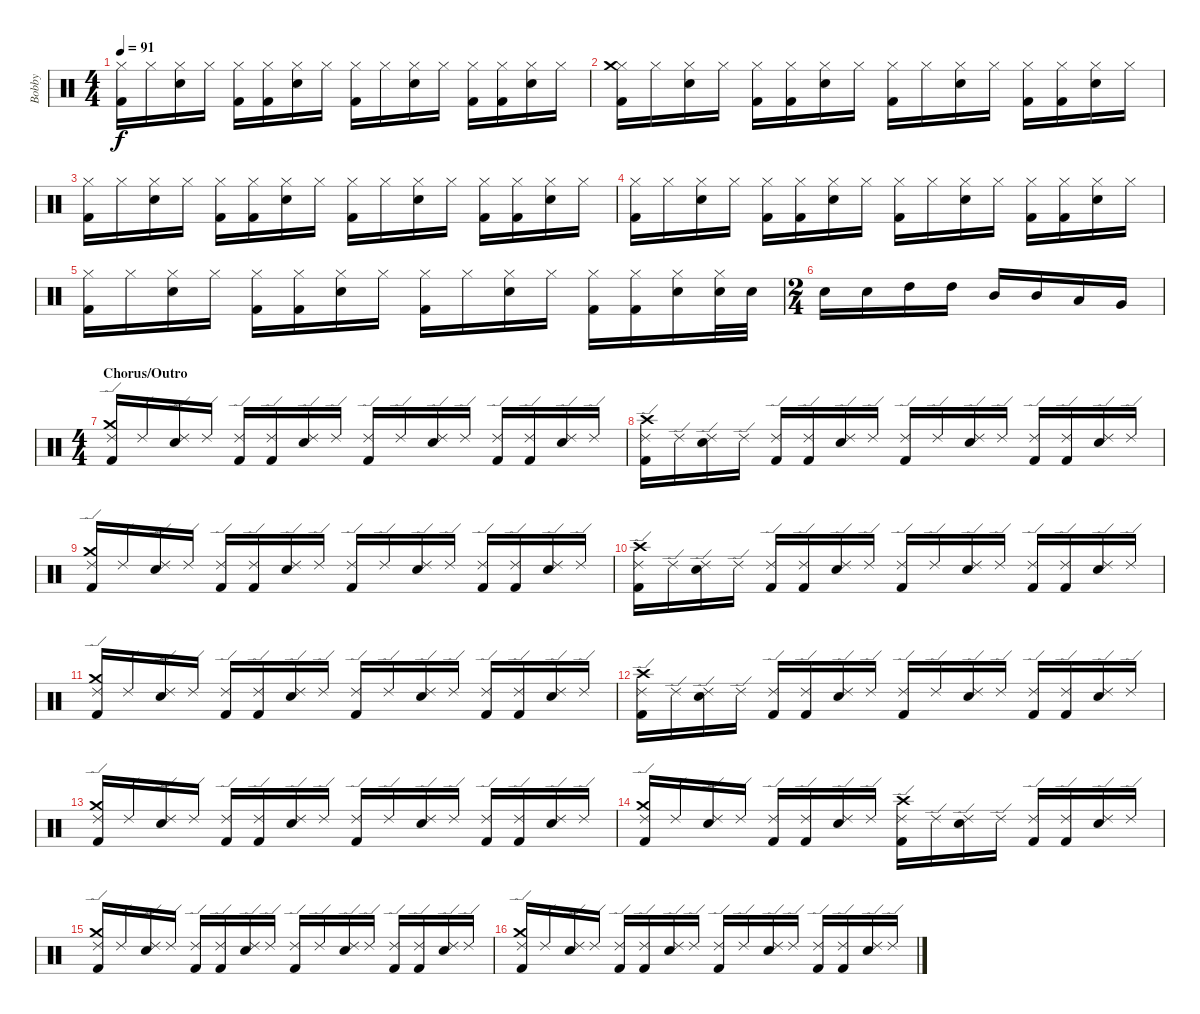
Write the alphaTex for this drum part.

\track ("Bobby" "Bobby") {instrument percussion}
\staff {score}
\articulation defaults
\ts (4 4)
\tempo 91
\clef neutral
\ks c
("Hi-Hat (closed)" "Kick (hit) 2").16{dy f} "Hi-Hat (closed)".16 ("Hi-Hat (closed)" "Snare (hit) 2").16 "Hi-Hat (closed)".16 ("Hi-Hat (closed)" "Kick (hit) 2").16 ("Hi-Hat (closed)" "Kick (hit) 2").16 ("Hi-Hat (closed)" "Snare (hit) 2").16 "Hi-Hat (closed)".16 ("Hi-Hat (closed)" "Kick (hit) 2").16 "Hi-Hat (closed)".16 ("Hi-Hat (closed)" "Snare (hit) 2").16 "Hi-Hat (closed)".16 ("Hi-Hat (closed)" "Kick (hit) 2").16 ("Hi-Hat (closed)" "Kick (hit) 2").16 ("Hi-Hat (closed)" "Snare (hit) 2").16 "Hi-Hat (closed)".16 |
("Hi-Hat (closed)" "Crash medium (hit)" "Kick (hit) 2").16 "Hi-Hat (closed)".16 ("Hi-Hat (closed)" "Snare (hit) 2").16 "Hi-Hat (closed)".16 ("Hi-Hat (closed)" "Kick (hit) 2").16 ("Hi-Hat (closed)" "Kick (hit) 2").16 ("Hi-Hat (closed)" "Snare (hit) 2").16 "Hi-Hat (closed)".16 ("Hi-Hat (closed)" "Kick (hit) 2").16 "Hi-Hat (closed)".16 ("Hi-Hat (closed)" "Snare (hit) 2").16 "Hi-Hat (closed)".16 ("Hi-Hat (closed)" "Kick (hit) 2").16 ("Hi-Hat (closed)" "Kick (hit) 2").16 ("Hi-Hat (closed)" "Snare (hit) 2").16 "Hi-Hat (closed)".16 |
("Hi-Hat (closed)" "Kick (hit) 2").16 "Hi-Hat (closed)".16 ("Hi-Hat (closed)" "Snare (hit) 2").16 "Hi-Hat (closed)".16 ("Hi-Hat (closed)" "Kick (hit) 2").16 ("Hi-Hat (closed)" "Kick (hit) 2").16 ("Hi-Hat (closed)" "Snare (hit) 2").16 "Hi-Hat (closed)".16 ("Hi-Hat (closed)" "Kick (hit) 2").16 "Hi-Hat (closed)".16 ("Hi-Hat (closed)" "Snare (hit) 2").16 "Hi-Hat (closed)".16 ("Hi-Hat (closed)" "Kick (hit) 2").16 ("Hi-Hat (closed)" "Kick (hit) 2").16 ("Hi-Hat (closed)" "Snare (hit) 2").16 "Hi-Hat (closed)".16 |
("Hi-Hat (closed)" "Kick (hit) 2").16 "Hi-Hat (closed)".16 ("Hi-Hat (closed)" "Snare (hit) 2").16 "Hi-Hat (closed)".16 ("Hi-Hat (closed)" "Kick (hit) 2").16 ("Hi-Hat (closed)" "Kick (hit) 2").16 ("Hi-Hat (closed)" "Snare (hit) 2").16 "Hi-Hat (closed)".16 ("Hi-Hat (closed)" "Kick (hit) 2").16 "Hi-Hat (closed)".16 ("Hi-Hat (closed)" "Snare (hit) 2").16 "Hi-Hat (closed)".16 ("Hi-Hat (closed)" "Kick (hit) 2").16 ("Hi-Hat (closed)" "Kick (hit) 2").16 ("Hi-Hat (closed)" "Snare (hit) 2").16 "Hi-Hat (closed)".16 |
("Hi-Hat (closed)" "Kick (hit) 2").16 "Hi-Hat (closed)".16 ("Hi-Hat (closed)" "Snare (hit) 2").16 "Hi-Hat (closed)".16 ("Hi-Hat (closed)" "Kick (hit) 2").16 ("Hi-Hat (closed)" "Kick (hit) 2").16 ("Hi-Hat (closed)" "Snare (hit) 2").16 "Hi-Hat (closed)".16 ("Hi-Hat (closed)" "Kick (hit) 2").16 "Hi-Hat (closed)".16 ("Hi-Hat (closed)" "Snare (hit) 2").16 "Hi-Hat (closed)".16 ("Hi-Hat (closed)" "Kick (hit) 2").16 ("Hi-Hat (closed)" "Kick (hit) 2").16 ("Hi-Hat (closed)" "Snare (hit) 2").16 ("Hi-Hat (closed)" "Snare (hit) 2").32 "Snare (hit) 2".32 |
\ts (2 4)
"Snare (hit) 2".16 "Snare (hit) 2".16 "High Tom (hit)".16 "High Tom (hit)".16 "Mid Tom (hit)".16 "Mid Tom (hit)".16 "Low Tom (hit)".16 "Very Low Tom (hit)".16 |
\ts (4 4)
\section ("" "Chorus/Outro")
("Ride (edge) 2" "Crash medium (hit)" "Kick (hit) 2").16 "Ride (edge) 2".16 ("Ride (edge) 2" "Snare (hit) 2").16 "Ride (edge) 2".16 ("Ride (edge) 2" "Kick (hit) 2").16 ("Ride (edge) 2" "Kick (hit) 2").16 ("Ride (edge) 2" "Snare (hit) 2").16 "Ride (edge) 2".16 ("Ride (edge) 2" "Kick (hit) 2").16 "Ride (edge) 2".16 ("Ride (edge) 2" "Snare (hit) 2").16 "Ride (edge) 2".16 ("Ride (edge) 2" "Kick (hit) 2").16 ("Ride (edge) 2" "Kick (hit) 2").16 ("Ride (edge) 2" "Snare (hit) 2").16 "Ride (edge) 2".16 |
("Ride (edge) 2" "Crash high (hit)" "Kick (hit) 2").16 "Ride (edge) 2".16 ("Ride (edge) 2" "Snare (hit) 2").16 "Ride (edge) 2".16 ("Ride (edge) 2" "Kick (hit) 2").16 ("Ride (edge) 2" "Kick (hit) 2").16 ("Ride (edge) 2" "Snare (hit) 2").16 "Ride (edge) 2".16 ("Ride (edge) 2" "Kick (hit) 2").16 "Ride (edge) 2".16 ("Ride (edge) 2" "Snare (hit) 2").16 "Ride (edge) 2".16 ("Ride (edge) 2" "Kick (hit) 2").16 ("Ride (edge) 2" "Kick (hit) 2").16 ("Ride (edge) 2" "Snare (hit) 2").16 "Ride (edge) 2".16 |
("Ride (edge) 2" "Crash medium (hit)" "Kick (hit) 2").16 "Ride (edge) 2".16 ("Ride (edge) 2" "Snare (hit) 2").16 "Ride (edge) 2".16 ("Ride (edge) 2" "Kick (hit) 2").16 ("Ride (edge) 2" "Kick (hit) 2").16 ("Ride (edge) 2" "Snare (hit) 2").16 "Ride (edge) 2".16 ("Ride (edge) 2" "Kick (hit) 2").16 "Ride (edge) 2".16 ("Ride (edge) 2" "Snare (hit) 2").16 "Ride (edge) 2".16 ("Ride (edge) 2" "Kick (hit) 2").16 ("Ride (edge) 2" "Kick (hit) 2").16 ("Ride (edge) 2" "Snare (hit) 2").16 "Ride (edge) 2".16 |
("Ride (edge) 2" "Crash high (hit)" "Kick (hit) 2").16 "Ride (edge) 2".16 ("Ride (edge) 2" "Snare (hit) 2").16 "Ride (edge) 2".16 ("Ride (edge) 2" "Kick (hit) 2").16 ("Ride (edge) 2" "Kick (hit) 2").16 ("Ride (edge) 2" "Snare (hit) 2").16 "Ride (edge) 2".16 ("Ride (edge) 2" "Kick (hit) 2").16 "Ride (edge) 2".16 ("Ride (edge) 2" "Snare (hit) 2").16 "Ride (edge) 2".16 ("Ride (edge) 2" "Kick (hit) 2").16 ("Ride (edge) 2" "Kick (hit) 2").16 ("Ride (edge) 2" "Snare (hit) 2").16 "Ride (edge) 2".16 |
("Ride (edge) 2" "Crash medium (hit)" "Kick (hit) 2").16 "Ride (edge) 2".16 ("Ride (edge) 2" "Snare (hit) 2").16 "Ride (edge) 2".16 ("Ride (edge) 2" "Kick (hit) 2").16 ("Ride (edge) 2" "Kick (hit) 2").16 ("Ride (edge) 2" "Snare (hit) 2").16 "Ride (edge) 2".16 ("Ride (edge) 2" "Kick (hit) 2").16 "Ride (edge) 2".16 ("Ride (edge) 2" "Snare (hit) 2").16 "Ride (edge) 2".16 ("Ride (edge) 2" "Kick (hit) 2").16 ("Ride (edge) 2" "Kick (hit) 2").16 ("Ride (edge) 2" "Snare (hit) 2").16 "Ride (edge) 2".16 |
("Ride (edge) 2" "Crash high (hit)" "Kick (hit) 2").16 "Ride (edge) 2".16 ("Ride (edge) 2" "Snare (hit) 2").16 "Ride (edge) 2".16 ("Ride (edge) 2" "Kick (hit) 2").16 ("Ride (edge) 2" "Kick (hit) 2").16 ("Ride (edge) 2" "Snare (hit) 2").16 "Ride (edge) 2".16 ("Ride (edge) 2" "Kick (hit) 2").16 "Ride (edge) 2".16 ("Ride (edge) 2" "Snare (hit) 2").16 "Ride (edge) 2".16 ("Ride (edge) 2" "Kick (hit) 2").16 ("Ride (edge) 2" "Kick (hit) 2").16 ("Ride (edge) 2" "Snare (hit) 2").16 "Ride (edge) 2".16 |
("Ride (edge) 2" "Crash medium (hit)" "Kick (hit) 2").16 "Ride (edge) 2".16 ("Ride (edge) 2" "Snare (hit) 2").16 "Ride (edge) 2".16 ("Ride (edge) 2" "Kick (hit) 2").16 ("Ride (edge) 2" "Kick (hit) 2").16 ("Ride (edge) 2" "Snare (hit) 2").16 "Ride (edge) 2".16 ("Ride (edge) 2" "Kick (hit) 2").16 "Ride (edge) 2".16 ("Ride (edge) 2" "Snare (hit) 2").16 "Ride (edge) 2".16 ("Ride (edge) 2" "Kick (hit) 2").16 ("Ride (edge) 2" "Kick (hit) 2").16 ("Ride (edge) 2" "Snare (hit) 2").16 "Ride (edge) 2".16 |
("Ride (edge) 2" "Crash medium (hit)" "Kick (hit) 2").16 "Ride (edge) 2".16 ("Ride (edge) 2" "Snare (hit) 2").16 "Ride (edge) 2".16 ("Ride (edge) 2" "Kick (hit) 2").16 ("Ride (edge) 2" "Kick (hit) 2").16 ("Ride (edge) 2" "Snare (hit) 2").16 "Ride (edge) 2".16 ("Ride (edge) 2" "Crash high (hit)" "Kick (hit) 2").16 "Ride (edge) 2".16 ("Ride (edge) 2" "Snare (hit) 2").16 "Ride (edge) 2".16 ("Ride (edge) 2" "Kick (hit) 2").16 ("Ride (edge) 2" "Kick (hit) 2").16 ("Ride (edge) 2" "Snare (hit) 2").16 "Ride (edge) 2".16 |
("Ride (edge) 2" "Crash medium (hit)" "Kick (hit) 2").16 "Ride (edge) 2".16 ("Ride (edge) 2" "Snare (hit) 2").16 "Ride (edge) 2".16 ("Ride (edge) 2" "Kick (hit) 2").16 ("Ride (edge) 2" "Kick (hit) 2").16 ("Ride (edge) 2" "Snare (hit) 2").16 "Ride (edge) 2".16 ("Ride (edge) 2" "Kick (hit) 2").16 "Ride (edge) 2".16 ("Ride (edge) 2" "Snare (hit) 2").16 "Ride (edge) 2".16 ("Ride (edge) 2" "Kick (hit) 2").16 ("Ride (edge) 2" "Kick (hit) 2").16 ("Ride (edge) 2" "Snare (hit) 2").16 "Ride (edge) 2".16 |
("Ride (edge) 2" "Crash medium (hit)" "Kick (hit) 2").16 "Ride (edge) 2".16 ("Ride (edge) 2" "Snare (hit) 2").16 "Ride (edge) 2".16 ("Ride (edge) 2" "Kick (hit) 2").16 ("Ride (edge) 2" "Kick (hit) 2").16 ("Ride (edge) 2" "Snare (hit) 2").16 "Ride (edge) 2".16 ("Ride (edge) 2" "Kick (hit) 2").16 "Ride (edge) 2".16 ("Ride (edge) 2" "Snare (hit) 2").16 "Ride (edge) 2".16 ("Ride (edge) 2" "Kick (hit) 2").16 ("Ride (edge) 2" "Kick (hit) 2").16 ("Ride (edge) 2" "Snare (hit) 2").16 "Ride (edge) 2".16
